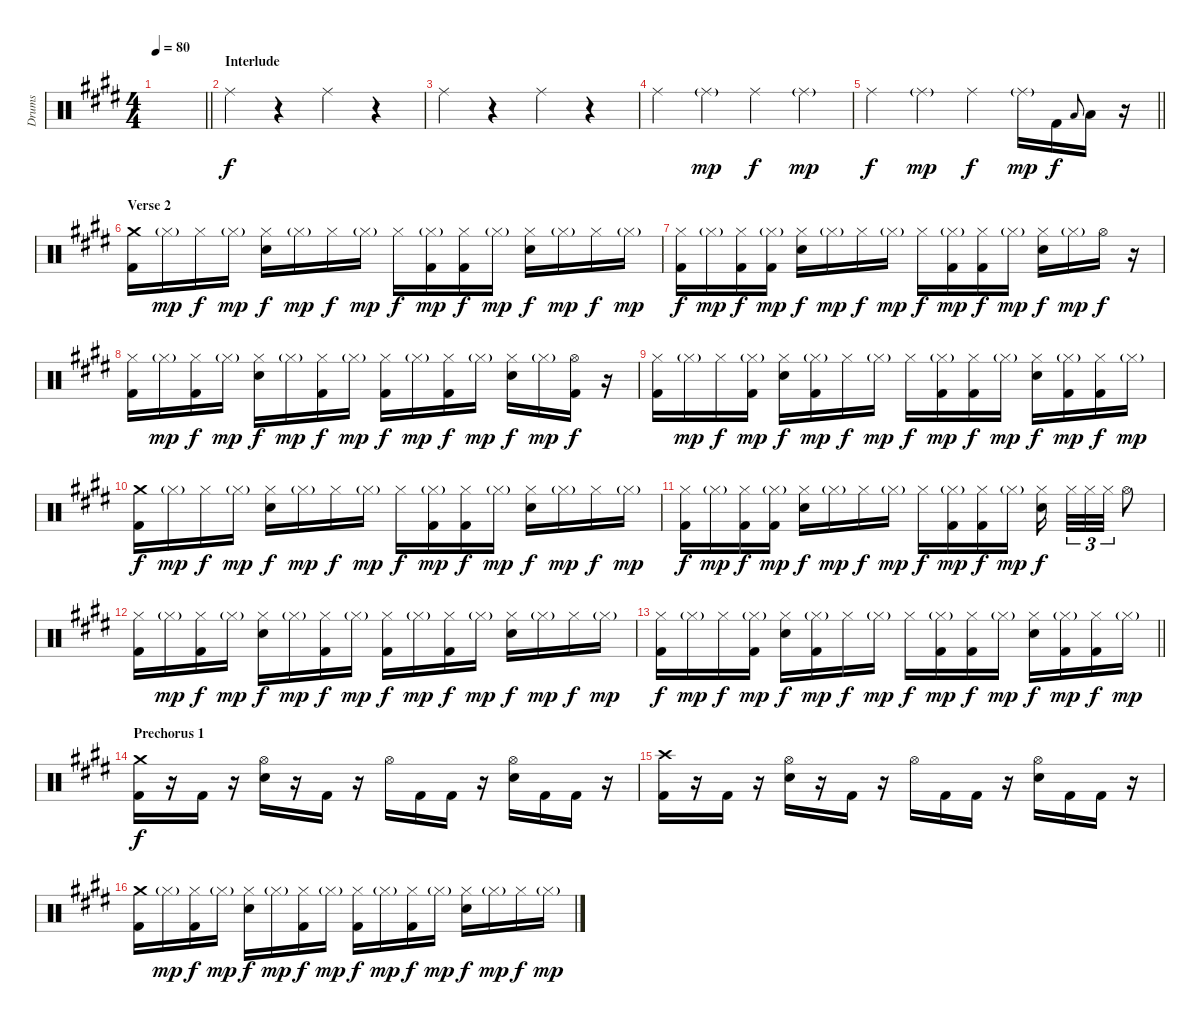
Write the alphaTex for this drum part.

\track ("Drums" "Drums") {instrument percussion}
\staff {score}
\articulation defaults
\ts (4 4)
\tempo 80
\clef neutral
\barLineRight lightlight
\ks e
|
\section ("" "Interlude")
"Ride (middle)".4 r.4 "Ride (middle)".4 r.4 |
"Ride (middle)".4 r.4 "Ride (middle)".4 r.4 |
"Ride (middle)".4 "Ride (middle)"{g}.4{dy mp} "Ride (middle)".4{dy f} "Ride (middle)"{g}.4{dy mp} |
\barLineRight lightlight "Ride (middle)".4{dy f} "Ride (middle)"{g}.4{dy mp} "Ride (middle)".4{dy f} "Ride (middle)"{g}.16{dy mp} "Kick (hit) 2".16{dy f} "Low Floor Tom (hit)".8{gr onbeat} "Low Floor Tom (hit)".16
r.16 |
\section ("" "Verse 2")
("Crash medium (hit)" "Kick (hit) 2").16 "Hi-Hat (closed)"{g}.16{dy mp} "Hi-Hat (closed)".16{dy f} "Hi-Hat (closed)"{g}.16{dy mp} ("Hi-Hat (closed)" "Snare (hit) 2").16{dy f} "Hi-Hat (closed)"{g}.16{dy mp} "Hi-Hat (closed)".16{dy f} "Hi-Hat (closed)"{g}.16{dy mp} "Hi-Hat (closed)".16{dy f} ("Hi-Hat (closed)"{g} "Kick (hit) 2").16{dy mp} ("Hi-Hat (closed)" "Kick (hit) 2").16{dy f} "Hi-Hat (closed)"{g}.16{dy mp} ("Hi-Hat (closed)" "Snare (hit) 2").16{dy f} "Hi-Hat (closed)"{g}.16{dy mp} "Hi-Hat (closed)".16{dy f} "Hi-Hat (closed)"{g}.16{dy mp} |
("Hi-Hat (closed)" "Kick (hit) 2").16{dy f} "Hi-Hat (closed)"{g}.16{dy mp} ("Hi-Hat (closed)" "Kick (hit) 2").16{dy f} ("Hi-Hat (closed)"{g} "Kick (hit) 2").16{dy mp} ("Hi-Hat (closed)" "Snare (hit) 2").16{dy f} "Hi-Hat (closed)"{g}.16{dy mp} "Hi-Hat (closed)".16{dy f} "Hi-Hat (closed)"{g}.16{dy mp} "Hi-Hat (closed)".16{dy f} ("Hi-Hat (closed)"{g} "Kick (hit) 2").16{dy mp} ("Hi-Hat (closed)" "Kick (hit) 2").16{dy f} "Hi-Hat (closed)"{g}.16{dy mp} ("Hi-Hat (closed)" "Snare (hit) 2").16{dy f} "Hi-Hat (closed)"{g}.16{dy mp} "Hi-Hat (open)".16{dy f} r.16 |
("Hi-Hat (closed)" "Kick (hit) 2").16 "Hi-Hat (closed)"{g}.16{dy mp} ("Hi-Hat (closed)" "Kick (hit) 2").16{dy f} "Hi-Hat (closed)"{g}.16{dy mp} ("Hi-Hat (closed)" "Snare (hit) 2").16{dy f} "Hi-Hat (closed)"{g}.16{dy mp} ("Hi-Hat (closed)" "Kick (hit) 2").16{dy f} "Hi-Hat (closed)"{g}.16{dy mp} ("Hi-Hat (closed)" "Kick (hit) 2").16{dy f} "Hi-Hat (closed)"{g}.16{dy mp} ("Hi-Hat (closed)" "Kick (hit) 2").16{dy f} "Hi-Hat (closed)"{g}.16{dy mp} ("Hi-Hat (closed)" "Snare (hit) 2").16{dy f} "Hi-Hat (closed)"{g}.16{dy mp} ("Hi-Hat (open)" "Kick (hit) 2").16{dy f} r.16 |
("Hi-Hat (closed)" "Kick (hit) 2").16 "Hi-Hat (closed)"{g}.16{dy mp} "Hi-Hat (closed)".16{dy f} ("Hi-Hat (closed)"{g} "Kick (hit) 2").16{dy mp} ("Hi-Hat (closed)" "Snare (hit) 2").16{dy f} ("Hi-Hat (closed)"{g} "Kick (hit) 2").16{dy mp} "Hi-Hat (closed)".16{dy f} "Hi-Hat (closed)"{g}.16{dy mp} "Hi-Hat (closed)".16{dy f} ("Hi-Hat (closed)"{g} "Kick (hit) 2").16{dy mp} ("Hi-Hat (closed)" "Kick (hit) 2").16{dy f} "Hi-Hat (closed)"{g}.16{dy mp} ("Hi-Hat (closed)" "Snare (hit) 2").16{dy f} ("Hi-Hat (closed)"{g} "Kick (hit) 2").16{dy mp} ("Hi-Hat (closed)" "Kick (hit) 2").16{dy f} "Hi-Hat (closed)"{g}.16{dy mp} |
("Crash medium (hit)" "Kick (hit) 2").16{dy f} "Hi-Hat (closed)"{g}.16{dy mp} "Hi-Hat (closed)".16{dy f} "Hi-Hat (closed)"{g}.16{dy mp} ("Hi-Hat (closed)" "Snare (hit) 2").16{dy f} "Hi-Hat (closed)"{g}.16{dy mp} "Hi-Hat (closed)".16{dy f} "Hi-Hat (closed)"{g}.16{dy mp} "Hi-Hat (closed)".16{dy f} ("Hi-Hat (closed)"{g} "Kick (hit) 2").16{dy mp} ("Hi-Hat (closed)" "Kick (hit) 2").16{dy f} "Hi-Hat (closed)"{g}.16{dy mp} ("Hi-Hat (closed)" "Snare (hit) 2").16{dy f} "Hi-Hat (closed)"{g}.16{dy mp} "Hi-Hat (closed)".16{dy f} "Hi-Hat (closed)"{g}.16{dy mp} |
("Hi-Hat (closed)" "Kick (hit) 2").16{dy f} "Hi-Hat (closed)"{g}.16{dy mp} ("Hi-Hat (closed)" "Kick (hit) 2").16{dy f} ("Hi-Hat (closed)"{g} "Kick (hit) 2").16{dy mp} ("Hi-Hat (closed)" "Snare (hit) 2").16{dy f} "Hi-Hat (closed)"{g}.16{dy mp} "Hi-Hat (closed)".16{dy f} "Hi-Hat (closed)"{g}.16{dy mp} "Hi-Hat (closed)".16{dy f} ("Hi-Hat (closed)"{g} "Kick (hit) 2").16{dy mp} ("Hi-Hat (closed)" "Kick (hit) 2").16{dy f} "Hi-Hat (closed)"{g}.16{dy mp} ("Hi-Hat (closed)" "Snare (hit) 2").16{dy f beam splitsecondary} "Hi-Hat (closed)".32{tu (3 2)} "Hi-Hat (closed)".32{tu (3 2)} "Hi-Hat (closed)".32{tu (3 2)} "Hi-Hat (open)".8 |
("Hi-Hat (closed)" "Kick (hit) 2").16 "Hi-Hat (closed)"{g}.16{dy mp} ("Hi-Hat (closed)" "Kick (hit) 2").16{dy f} "Hi-Hat (closed)"{g}.16{dy mp} ("Hi-Hat (closed)" "Snare (hit) 2").16{dy f} "Hi-Hat (closed)"{g}.16{dy mp} ("Hi-Hat (closed)" "Kick (hit) 2").16{dy f} "Hi-Hat (closed)"{g}.16{dy mp} ("Hi-Hat (closed)" "Kick (hit) 2").16{dy f} "Hi-Hat (closed)"{g}.16{dy mp} ("Hi-Hat (closed)" "Kick (hit) 2").16{dy f} "Hi-Hat (closed)"{g}.16{dy mp} ("Hi-Hat (closed)" "Snare (hit) 2").16{dy f} "Hi-Hat (closed)"{g}.16{dy mp} "Hi-Hat (closed)".16{dy f} "Hi-Hat (closed)"{g}.16{dy mp} |
\barLineRight lightlight
("Hi-Hat (closed)" "Kick (hit) 2").16{dy f} "Hi-Hat (closed)"{g}.16{dy mp} "Hi-Hat (closed)".16{dy f} ("Hi-Hat (closed)"{g} "Kick (hit) 2").16{dy mp} ("Hi-Hat (closed)" "Snare (hit) 2").16{dy f} ("Hi-Hat (closed)"{g} "Kick (hit) 2").16{dy mp} "Hi-Hat (closed)".16{dy f} "Hi-Hat (closed)"{g}.16{dy mp} "Hi-Hat (closed)".16{dy f} ("Hi-Hat (closed)"{g} "Kick (hit) 2").16{dy mp} ("Hi-Hat (closed)" "Kick (hit) 2").16{dy f} "Hi-Hat (closed)"{g}.16{dy mp} ("Hi-Hat (closed)" "Snare (hit) 2").16{dy f} ("Hi-Hat (closed)"{g} "Kick (hit) 2").16{dy mp} ("Hi-Hat (closed)" "Kick (hit) 2").16{dy f} "Hi-Hat (closed)"{g}.16{dy mp} |
\section ("" "Prechorus 1")
("Crash medium (hit)" "Kick (hit) 2").16{dy f} r.16 "Kick (hit) 2".16 r.16 ("Hi-Hat (open)" "Snare (hit) 2").16 r.16 "Kick (hit) 2".16 r.16 "Hi-Hat (open)".16 "Kick (hit) 2".16 "Kick (hit) 2".16 r.16 ("Hi-Hat (open)" "Snare (hit) 2").16 "Kick (hit) 2".16 "Kick (hit) 2".16 r.16 |
("Crash high (hit)" "Kick (hit) 2").16 r.16 "Kick (hit) 2".16 r.16 ("Hi-Hat (open)" "Snare (hit) 2").16 r.16 "Kick (hit) 2".16 r.16 "Hi-Hat (open)".16 "Kick (hit) 2".16 "Kick (hit) 2".16 r.16 ("Hi-Hat (open)" "Snare (hit) 2").16 "Kick (hit) 2".16 "Kick (hit) 2".16 r.16 |
("Crash medium (hit)" "Kick (hit) 2").16 "Hi-Hat (closed)"{g}.16{dy mp} ("Hi-Hat (closed)" "Kick (hit) 2").16{dy f} "Hi-Hat (closed)"{g}.16{dy mp} ("Hi-Hat (closed)" "Snare (hit) 2").16{dy f} "Hi-Hat (closed)"{g}.16{dy mp} ("Hi-Hat (closed)" "Kick (hit) 2").16{dy f} "Hi-Hat (closed)"{g}.16{dy mp} ("Hi-Hat (closed)" "Kick (hit) 2").16{dy f} "Hi-Hat (closed)"{g}.16{dy mp} ("Hi-Hat (closed)" "Kick (hit) 2").16{dy f} "Hi-Hat (closed)"{g}.16{dy mp} ("Hi-Hat (closed)" "Snare (hit) 2").16{dy f} "Hi-Hat (closed)"{g}.16{dy mp} "Hi-Hat (closed)".16{dy f} "Hi-Hat (closed)"{g}.16{dy mp}
